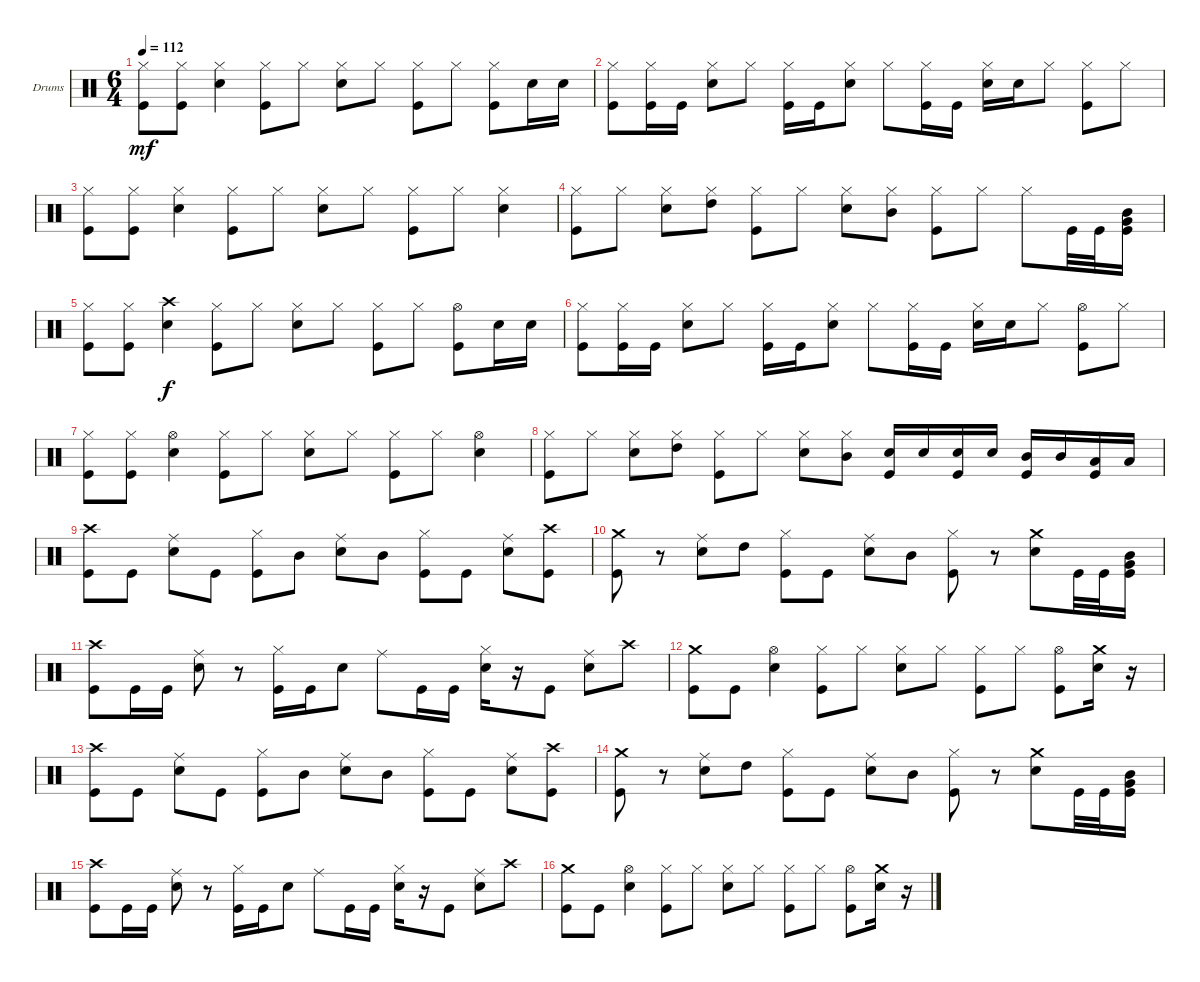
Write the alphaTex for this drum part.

\defaultSystemsLayout 4
\bracketExtendMode groupsimilarinstruments
\firstSystemTrackNameOrientation horizontal
\otherSystemsTrackNameOrientation horizontal
\track ("Drumkit" "Drums") {instrument percussion}
\staff {score}
\articulation defaults
\ts (6 4)
\tempo 112
\clef neutral
\scale
0.333333
\ks c
("Hi-Hat (closed)" "Kick (hit)").8{dy mf} ("Hi-Hat (closed)" "Kick (hit)").8 ("Hi-Hat (closed)" "Snare (hit) 2").4 ("Hi-Hat (closed)" "Kick (hit)").8 "Hi-Hat (closed)".8 ("Hi-Hat (closed)" "Snare (hit) 2").8 "Hi-Hat (closed)".8 ("Hi-Hat (closed)" "Kick (hit)").8 "Hi-Hat (closed)".8 ("Kick (hit)" "Hi-Hat (closed)").8 "Snare (hit) 2".16 "Snare (hit) 2".16 |
\scale
0.333333 ("Kick (hit)" "Hi-Hat (closed)").8 ("Kick (hit)" "Hi-Hat (closed)").16 "Kick (hit)".16 ("Snare (hit) 2" "Hi-Hat (closed)").8 "Hi-Hat (closed)".8 ("Hi-Hat (closed)" "Kick (hit)").16 "Kick (hit)".16 ("Hi-Hat (closed)" "Snare (hit) 2").8 "Hi-Hat (closed)".8 ("Hi-Hat (closed)" "Kick (hit)").16 "Kick (hit)".16 ("Hi-Hat (closed)" "Snare (hit) 2").16 "Snare (hit) 2".16 "Hi-Hat (closed)".8 ("Hi-Hat (closed)" "Kick (hit)").8 "Hi-Hat (closed)".8 |
\scale
0.333333 ("Hi-Hat (closed)" "Kick (hit)").8 ("Hi-Hat (closed)" "Kick (hit)").8 ("Hi-Hat (closed)" "Snare (hit) 2").4 ("Hi-Hat (closed)" "Kick (hit)").8 "Hi-Hat (closed)".8 ("Hi-Hat (closed)" "Snare (hit) 2").8 "Hi-Hat (closed)".8 ("Hi-Hat (closed)" "Kick (hit)").8 "Hi-Hat (closed)".8 ("Hi-Hat (closed)" "Snare (hit) 2").4 |
\scale
0.333333 ("Kick (hit)" "Hi-Hat (closed)").8 "Hi-Hat (closed)".8 ("Hi-Hat (closed)" "Snare (hit) 2").8 ("Hi-Hat (closed)" "High Tom (hit)").8 ("Hi-Hat (closed)" "Kick (hit)").8 "Hi-Hat (closed)".8 ("Hi-Hat (closed)" "Snare (hit) 2").8 ("Hi-Hat (closed)" "Mid Tom (hit)").8 ("Hi-Hat (closed)" "Kick (hit)").8 "Hi-Hat (closed)".8 "Hi-Hat (closed)".8 "Kick (hit)".32 "Kick (hit)".32 ("Mid Tom (hit)" "Very Low Tom (hit)" "Kick (hit)").16 |
\scale
0.333333 ("Hi-Hat (closed)" "Kick (hit)").8 ("Kick (hit)" "Hi-Hat (closed)").8 ("Snare (hit) 2" "Crash high (hit)").4{dy f} ("Hi-Hat (closed)" "Kick (hit)").8 "Hi-Hat (closed)".8 ("Hi-Hat (closed)" "Snare (hit) 2").8 "Hi-Hat (closed)".8 ("Hi-Hat (closed)" "Kick (hit)").8 "Hi-Hat (closed)".8 ("Kick (hit)" "Hi-Hat (open)").8 "Snare (hit) 2".16 "Snare (hit) 2".16 |
\scale
0.333333 ("Kick (hit)" "Hi-Hat (closed)").8 ("Kick (hit)" "Hi-Hat (closed)").16 "Kick (hit)".16 ("Snare (hit) 2" "Hi-Hat (closed)").8 "Hi-Hat (closed)".8 ("Hi-Hat (closed)" "Kick (hit)").16 "Kick (hit)".16 ("Hi-Hat (closed)" "Snare (hit) 2").8 "Hi-Hat (closed)".8 ("Hi-Hat (closed)" "Kick (hit)").16 "Kick (hit)".16 ("Hi-Hat (closed)" "Snare (hit) 2").16 "Snare (hit) 2".16 "Hi-Hat (closed)".8 ("Hi-Hat (open)" "Kick (hit)").8 "Hi-Hat (closed)".8 |
\scale
0.333333 ("Hi-Hat (closed)" "Kick (hit)").8 ("Hi-Hat (closed)" "Kick (hit)").8 ("Hi-Hat (open)" "Snare (hit) 2").4 ("Hi-Hat (closed)" "Kick (hit)").8 "Hi-Hat (closed)".8 ("Hi-Hat (closed)" "Snare (hit) 2").8 "Hi-Hat (closed)".8 ("Hi-Hat (closed)" "Kick (hit)").8 "Hi-Hat (closed)".8 ("Hi-Hat (open)" "Snare (hit) 2").4 |
\scale
0.333333 ("Kick (hit)" "Hi-Hat (closed)").8 "Hi-Hat (closed)".8 ("Hi-Hat (closed)" "Snare (hit) 2").8 ("Hi-Hat (closed)" "High Tom (hit)").8 ("Hi-Hat (closed)" "Kick (hit)").8 "Hi-Hat (closed)".8 ("Hi-Hat (closed)" "Snare (hit) 2").8 ("Hi-Hat (closed)" "Mid Tom (hit)").8 ("Snare (hit) 2" "Kick (hit)").16 "Snare (hit) 2".16 ("Snare (hit) 2" "Kick (hit)").16 "Snare (hit) 2".16 ("Mid Tom (hit)" "Kick (hit)").16 "Mid Tom (hit)".16 ("Kick (hit)" "Low Tom (hit)").16 "Low Tom (hit)".16 |
\scale
0.333333 ("Kick (hit)" "Crash high (hit)").8 "Kick (hit)".8 ("Snare (hit) 2" "Ride (middle)").8 "Kick (hit)".8 ("Hi-Hat (closed)" "Kick (hit)").8 "Mid Tom (hit)".8 ("Ride (middle)" "Snare (hit) 2").8 "Mid Tom (hit)".8 ("Hi-Hat (closed)" "Kick (hit)").8 "Kick (hit)".8 ("Ride (middle)" "Snare (hit) 2").8 ("Kick (hit)" "Crash high (hit)").8 |
\scale
0.333333 ("Kick (hit)" "Crash medium (hit)").8 r.8 ("Snare (hit) 2" "Ride (middle)").8 "High Tom (hit)".8 ("Hi-Hat (closed)" "Kick (hit)").8 "Kick (hit)".8 ("Snare (hit) 2" "Ride (middle)").8 "Mid Tom (hit)".8 ("Hi-Hat (closed)" "Kick (hit)").8 r.8 ("Crash medium (hit)" "Snare (hit) 2").8 "Kick (hit)".32 "Kick (hit)".32 ("Mid Tom (hit)" "Very Low Tom (hit)" "Kick (hit)").16 |
\scale
0.333333 ("Kick (hit)" "Crash high (hit)").8 "Kick (hit)".16 "Kick (hit)".16 ("Snare (hit) 2" "Ride (middle)").8 r.8 ("Hi-Hat (closed)" "Kick (hit)").16 "Kick (hit)".16 "Snare (hit) 2".8 "Ride (middle)".8 "Kick (hit)".16 "Kick (hit)".16 ("Hi-Hat (closed)" "Snare (hit) 2").16 r.16 "Kick (hit)".8 ("Ride (middle)" "Snare (hit) 2").8 "Crash high (hit)".8 |
\scale
0.333333 ("Kick (hit)" "Crash medium (hit)").8 "Kick (hit)".8 ("Hi-Hat (open)" "Snare (hit) 2").4 ("Hi-Hat (closed)" "Kick (hit)").8 "Hi-Hat (closed)".8 ("Hi-Hat (closed)" "Snare (hit) 2").8 "Hi-Hat (closed)".8 ("Hi-Hat (closed)" "Kick (hit)").8 "Hi-Hat (closed)".8 ("Kick (hit)" "Hi-Hat (open)").8 ("Snare (hit) 2" "Crash medium (hit)").16 r.16 |
\scale
0.333333 ("Kick (hit)" "Crash high (hit)").8 "Kick (hit)".8 ("Snare (hit) 2" "Ride (middle)").8 "Kick (hit)".8 ("Hi-Hat (closed)" "Kick (hit)").8 "Mid Tom (hit)".8 ("Ride (middle)" "Snare (hit) 2").8 "Mid Tom (hit)".8 ("Hi-Hat (closed)" "Kick (hit)").8 "Kick (hit)".8 ("Ride (middle)" "Snare (hit) 2").8 ("Kick (hit)" "Crash high (hit)").8 |
\scale
0.333333 ("Kick (hit)" "Crash medium (hit)").8 r.8 ("Snare (hit) 2" "Ride (middle)").8 "High Tom (hit)".8 ("Hi-Hat (closed)" "Kick (hit)").8 "Kick (hit)".8 ("Snare (hit) 2" "Ride (middle)").8 "Mid Tom (hit)".8 ("Hi-Hat (closed)" "Kick (hit)").8 r.8 ("Crash medium (hit)" "Snare (hit) 2").8 "Kick (hit)".32 "Kick (hit)".32 ("Mid Tom (hit)" "Very Low Tom (hit)" "Kick (hit)").16 |
\scale
0.333333 ("Kick (hit)" "Crash high (hit)").8 "Kick (hit)".16 "Kick (hit)".16 ("Snare (hit) 2" "Ride (middle)").8 r.8 ("Hi-Hat (closed)" "Kick (hit)").16 "Kick (hit)".16 "Snare (hit) 2".8 "Ride (middle)".8 "Kick (hit)".16 "Kick (hit)".16 ("Hi-Hat (closed)" "Snare (hit) 2").16 r.16 "Kick (hit)".8 ("Ride (middle)" "Snare (hit) 2").8 "Crash high (hit)".8 |
\scale
0.333333 ("Kick (hit)" "Crash medium (hit)").8 "Kick (hit)".8 ("Hi-Hat (open)" "Snare (hit) 2").4 ("Hi-Hat (closed)" "Kick (hit)").8 "Hi-Hat (closed)".8 ("Hi-Hat (closed)" "Snare (hit) 2").8 "Hi-Hat (closed)".8 ("Hi-Hat (closed)" "Kick (hit)").8 "Hi-Hat (closed)".8 ("Kick (hit)" "Hi-Hat (open)").8 ("Snare (hit) 2" "Crash medium (hit)").16 r.16
